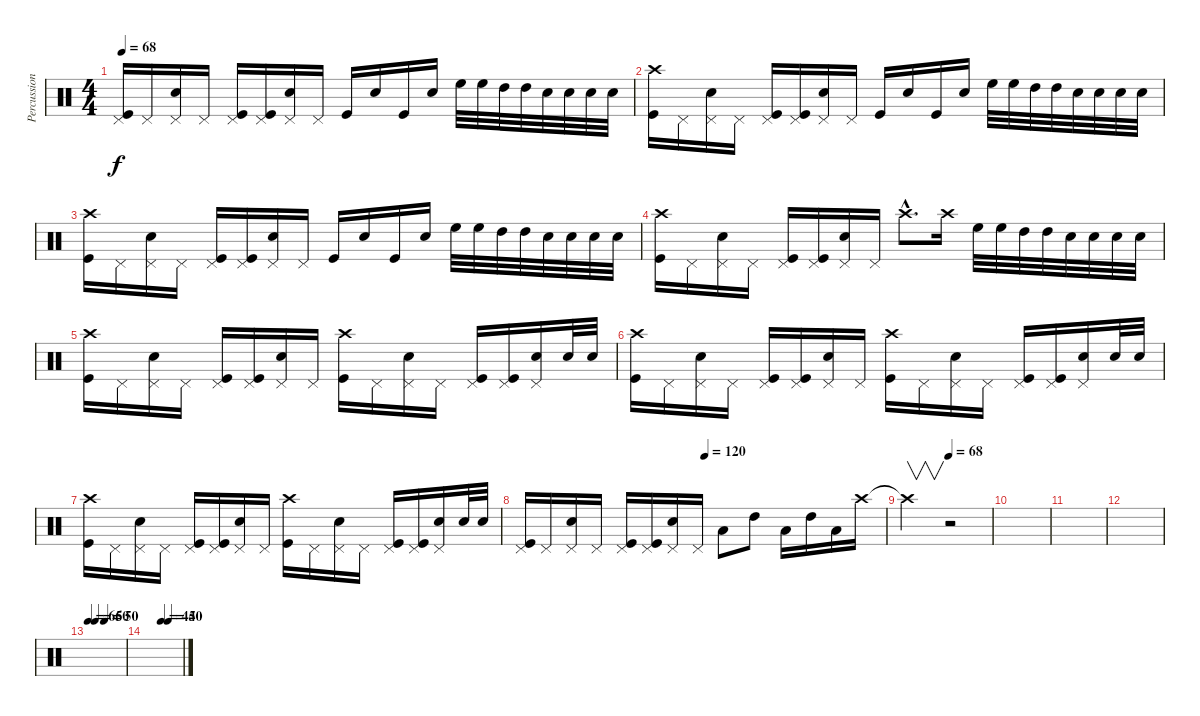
\track ("Percussion" "Percussion") {instrument percussion}
\staff {score}
\articulation defaults
\ts (4 4)
\tempo 68
\clef neutral
\ks c
("Pedal Hi-Hat (hit)" "Kick (hit)").16{dy f} "Pedal Hi-Hat (hit)".16 ("Pedal Hi-Hat (hit)" "Electric Snare (hit)").16 "Pedal Hi-Hat (hit)".16 ("Pedal Hi-Hat (hit)" "Kick (hit)").16 ("Pedal Hi-Hat (hit)" "Kick (hit)").16 ("Pedal Hi-Hat (hit)" "Electric Snare (hit)").16 "Pedal Hi-Hat (hit)".16 "Kick (hit)".16 "Electric Snare (hit)".16 "Kick (hit)".16 "Electric Snare (hit)".16 "High Floor Tom (hit)".32 "High Floor Tom (hit)".32 "High Tom (hit)".32 "High Tom (hit)".32 "Electric Snare (hit)".32 "Electric Snare (hit)".32 "Electric Snare (hit)".32 "Electric Snare (hit)".32 |
("Crash high (hit)" "Kick (hit)").16 "Pedal Hi-Hat (hit)".16 ("Pedal Hi-Hat (hit)" "Electric Snare (hit)").16 "Pedal Hi-Hat (hit)".16 ("Pedal Hi-Hat (hit)" "Kick (hit)").16 ("Pedal Hi-Hat (hit)" "Kick (hit)").16 ("Pedal Hi-Hat (hit)" "Electric Snare (hit)").16 "Pedal Hi-Hat (hit)".16 "Kick (hit)".16 "Electric Snare (hit)".16 "Kick (hit)".16 "Electric Snare (hit)".16 "High Floor Tom (hit)".32 "High Floor Tom (hit)".32 "High Tom (hit)".32 "High Tom (hit)".32 "Electric Snare (hit)".32 "Electric Snare (hit)".32 "Electric Snare (hit)".32 "Electric Snare (hit)".32 |
("Crash high (hit)" "Kick (hit)").16 "Pedal Hi-Hat (hit)".16 ("Pedal Hi-Hat (hit)" "Electric Snare (hit)").16 "Pedal Hi-Hat (hit)".16 ("Pedal Hi-Hat (hit)" "Kick (hit)").16 ("Pedal Hi-Hat (hit)" "Kick (hit)").16 ("Pedal Hi-Hat (hit)" "Electric Snare (hit)").16 "Pedal Hi-Hat (hit)".16 "Kick (hit)".16 "Electric Snare (hit)".16 "Kick (hit)".16 "Electric Snare (hit)".16 "High Floor Tom (hit)".32 "High Floor Tom (hit)".32 "High Tom (hit)".32 "High Tom (hit)".32 "Electric Snare (hit)".32 "Electric Snare (hit)".32 "Electric Snare (hit)".32 "Electric Snare (hit)".32 |
("Crash high (hit)" "Kick (hit)").16 "Pedal Hi-Hat (hit)".16 ("Pedal Hi-Hat (hit)" "Electric Snare (hit)").16 "Pedal Hi-Hat (hit)".16 ("Pedal Hi-Hat (hit)" "Kick (hit)").16 ("Pedal Hi-Hat (hit)" "Kick (hit)").16 ("Pedal Hi-Hat (hit)" "Electric Snare (hit)").16 "Pedal Hi-Hat (hit)".16 "Crash high (hit)"{hac}.8{d} "Crash high (hit)".16 "High Floor Tom (hit)".32 "High Floor Tom (hit)".32 "High Tom (hit)".32 "High Tom (hit)".32 "Electric Snare (hit)".32 "Electric Snare (hit)".32 "Electric Snare (hit)".32 "Electric Snare (hit)".32 |
("Crash high (hit)" "Kick (hit)").16 "Pedal Hi-Hat (hit)".16 ("Pedal Hi-Hat (hit)" "Electric Snare (hit)").16 "Pedal Hi-Hat (hit)".16 ("Pedal Hi-Hat (hit)" "Kick (hit)").16 ("Pedal Hi-Hat (hit)" "Kick (hit)").16 ("Pedal Hi-Hat (hit)" "Electric Snare (hit)").16 "Pedal Hi-Hat (hit)".16 ("Crash high (hit)" "Kick (hit)").16 "Pedal Hi-Hat (hit)".16 ("Pedal Hi-Hat (hit)" "Electric Snare (hit)").16 "Pedal Hi-Hat (hit)".16 ("Pedal Hi-Hat (hit)" "Kick (hit)").16 ("Pedal Hi-Hat (hit)" "Kick (hit)").16 ("Pedal Hi-Hat (hit)" "Electric Snare (hit)").16 "Electric Snare (hit)".32 "Electric Snare (hit)".32 |
("Crash high (hit)" "Kick (hit)").16 "Pedal Hi-Hat (hit)".16 ("Pedal Hi-Hat (hit)" "Electric Snare (hit)").16 "Pedal Hi-Hat (hit)".16 ("Pedal Hi-Hat (hit)" "Kick (hit)").16 ("Pedal Hi-Hat (hit)" "Kick (hit)").16 ("Pedal Hi-Hat (hit)" "Electric Snare (hit)").16 "Pedal Hi-Hat (hit)".16 ("Crash high (hit)" "Kick (hit)").16 "Pedal Hi-Hat (hit)".16 ("Pedal Hi-Hat (hit)" "Electric Snare (hit)").16 "Pedal Hi-Hat (hit)".16 ("Pedal Hi-Hat (hit)" "Kick (hit)").16 ("Pedal Hi-Hat (hit)" "Kick (hit)").16 ("Pedal Hi-Hat (hit)" "Electric Snare (hit)").16 "Electric Snare (hit)".32 "Electric Snare (hit)".32 |
("Crash high (hit)" "Kick (hit)").16 "Pedal Hi-Hat (hit)".16 ("Pedal Hi-Hat (hit)" "Electric Snare (hit)").16 "Pedal Hi-Hat (hit)".16 ("Pedal Hi-Hat (hit)" "Kick (hit)").16 ("Pedal Hi-Hat (hit)" "Kick (hit)").16 ("Pedal Hi-Hat (hit)" "Electric Snare (hit)").16 "Pedal Hi-Hat (hit)".16 ("Crash high (hit)" "Kick (hit)").16 "Pedal Hi-Hat (hit)".16 ("Pedal Hi-Hat (hit)" "Electric Snare (hit)").16 "Pedal Hi-Hat (hit)".16 ("Pedal Hi-Hat (hit)" "Kick (hit)").16 ("Pedal Hi-Hat (hit)" "Kick (hit)").16 ("Pedal Hi-Hat (hit)" "Electric Snare (hit)").16 "Electric Snare (hit)".32 "Electric Snare (hit)".32 |
\tempo (120 0.5)
("Pedal Hi-Hat (hit)" "Kick (hit)").16 "Pedal Hi-Hat (hit)".16 ("Pedal Hi-Hat (hit)" "Electric Snare (hit)").16 "Pedal Hi-Hat (hit)".16 ("Pedal Hi-Hat (hit)" "Kick (hit)").16 ("Pedal Hi-Hat (hit)" "Kick (hit)").16 ("Pedal Hi-Hat (hit)" "Electric Snare (hit)").16 "Pedal Hi-Hat (hit)".16 "Low Tom (hit)".8 "High Tom (hit)".8 "Low Tom (hit)".16 "High Tom (hit)".16 "Low Tom (hit)".16 "Crash high (hit)".16 |
\tempo (68 0.5)
"Crash high (hit)"{t}.2{v} r.2 |
|
|
|
\tempo (50 0.4375)
\tempo 65
\tempo (60 0.1875)
|
\tempo (45 0.4375)
\tempo (40 0.625)
